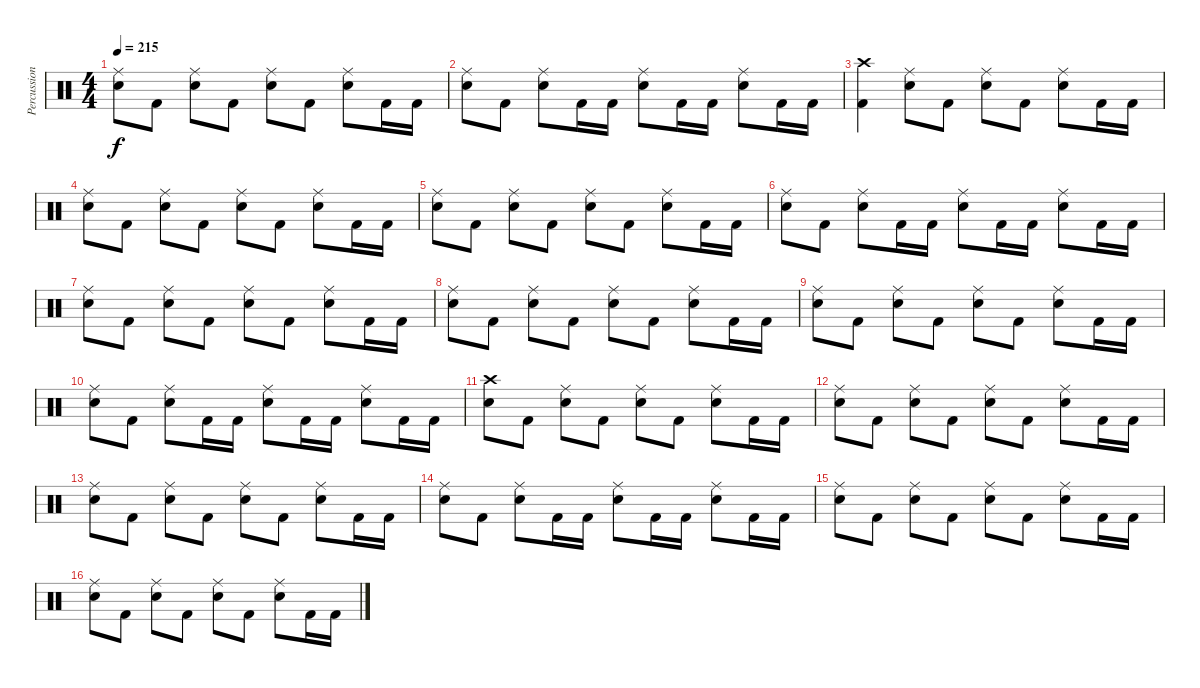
\track ("Percussion" "Percussion") {instrument percussion}
\staff {score}
\articulation defaults
\ts (4 4)
\tempo 215
\clef neutral
\ks aminor
("Ride (middle)" "Snare (hit) 2").8{dy f} "Kick (hit) 2".8 ("Ride (middle)" "Snare (hit) 2").8 "Kick (hit) 2".8 ("Ride (middle)" "Snare (hit) 2").8 "Kick (hit) 2".8 ("Ride (middle)" "Snare (hit) 2").8 "Kick (hit) 2".16 "Kick (hit) 2".16 |
("Ride (middle)" "Snare (hit) 2").8 "Kick (hit) 2".8 ("Ride (middle)" "Snare (hit) 2").8 "Kick (hit) 2".16 "Kick (hit) 2".16 ("Ride (middle)" "Snare (hit) 2").8 "Kick (hit) 2".16 "Kick (hit) 2".16 ("Ride (middle)" "Snare (hit) 2").8 "Kick (hit) 2".16 "Kick (hit) 2".16 |
("Crash high (hit)" "Kick (hit) 2").4 ("Ride (middle)" "Snare (hit) 2").8 "Kick (hit) 2".8 ("Ride (middle)" "Snare (hit) 2").8 "Kick (hit) 2".8 ("Ride (middle)" "Snare (hit) 2").8 "Kick (hit) 2".16 "Kick (hit) 2".16 |
("Ride (middle)" "Snare (hit) 2").8 "Kick (hit) 2".8 ("Ride (middle)" "Snare (hit) 2").8 "Kick (hit) 2".8 ("Ride (middle)" "Snare (hit) 2").8 "Kick (hit) 2".8 ("Ride (middle)" "Snare (hit) 2").8 "Kick (hit) 2".16 "Kick (hit) 2".16 |
("Ride (middle)" "Snare (hit) 2").8 "Kick (hit) 2".8 ("Ride (middle)" "Snare (hit) 2").8 "Kick (hit) 2".8 ("Ride (middle)" "Snare (hit) 2").8 "Kick (hit) 2".8 ("Ride (middle)" "Snare (hit) 2").8 "Kick (hit) 2".16 "Kick (hit) 2".16 |
("Ride (middle)" "Snare (hit) 2").8 "Kick (hit) 2".8 ("Ride (middle)" "Snare (hit) 2").8 "Kick (hit) 2".16 "Kick (hit) 2".16 ("Ride (middle)" "Snare (hit) 2").8 "Kick (hit) 2".16 "Kick (hit) 2".16 ("Ride (middle)" "Snare (hit) 2").8 "Kick (hit) 2".16 "Kick (hit) 2".16 |
("Ride (middle)" "Snare (hit) 2").8 "Kick (hit) 2".8 ("Ride (middle)" "Snare (hit) 2").8 "Kick (hit) 2".8 ("Ride (middle)" "Snare (hit) 2").8 "Kick (hit) 2".8 ("Ride (middle)" "Snare (hit) 2").8 "Kick (hit) 2".16 "Kick (hit) 2".16 |
("Ride (middle)" "Snare (hit) 2").8 "Kick (hit) 2".8 ("Ride (middle)" "Snare (hit) 2").8 "Kick (hit) 2".8 ("Ride (middle)" "Snare (hit) 2").8 "Kick (hit) 2".8 ("Ride (middle)" "Snare (hit) 2").8 "Kick (hit) 2".16 "Kick (hit) 2".16 |
("Ride (middle)" "Snare (hit) 2").8 "Kick (hit) 2".8 ("Ride (middle)" "Snare (hit) 2").8 "Kick (hit) 2".8 ("Ride (middle)" "Snare (hit) 2").8 "Kick (hit) 2".8 ("Ride (middle)" "Snare (hit) 2").8 "Kick (hit) 2".16 "Kick (hit) 2".16 |
("Ride (middle)" "Snare (hit) 2").8 "Kick (hit) 2".8 ("Ride (middle)" "Snare (hit) 2").8 "Kick (hit) 2".16 "Kick (hit) 2".16 ("Ride (middle)" "Snare (hit) 2").8 "Kick (hit) 2".16 "Kick (hit) 2".16 ("Ride (middle)" "Snare (hit) 2").8 "Kick (hit) 2".16 "Kick (hit) 2".16 |
("Crash high (hit)" "Snare (hit) 2").8 "Kick (hit) 2".8 ("Ride (middle)" "Snare (hit) 2").8 "Kick (hit) 2".8 ("Ride (middle)" "Snare (hit) 2").8 "Kick (hit) 2".8 ("Ride (middle)" "Snare (hit) 2").8 "Kick (hit) 2".16 "Kick (hit) 2".16 |
("Ride (middle)" "Snare (hit) 2").8 "Kick (hit) 2".8 ("Ride (middle)" "Snare (hit) 2").8 "Kick (hit) 2".8 ("Ride (middle)" "Snare (hit) 2").8 "Kick (hit) 2".8 ("Ride (middle)" "Snare (hit) 2").8 "Kick (hit) 2".16 "Kick (hit) 2".16 |
("Ride (middle)" "Snare (hit) 2").8 "Kick (hit) 2".8 ("Ride (middle)" "Snare (hit) 2").8 "Kick (hit) 2".8 ("Ride (middle)" "Snare (hit) 2").8 "Kick (hit) 2".8 ("Ride (middle)" "Snare (hit) 2").8 "Kick (hit) 2".16 "Kick (hit) 2".16 |
("Ride (middle)" "Snare (hit) 2").8 "Kick (hit) 2".8 ("Ride (middle)" "Snare (hit) 2").8 "Kick (hit) 2".16 "Kick (hit) 2".16 ("Ride (middle)" "Snare (hit) 2").8 "Kick (hit) 2".16 "Kick (hit) 2".16 ("Ride (middle)" "Snare (hit) 2").8 "Kick (hit) 2".16 "Kick (hit) 2".16 |
("Ride (middle)" "Snare (hit) 2").8 "Kick (hit) 2".8 ("Ride (middle)" "Snare (hit) 2").8 "Kick (hit) 2".8 ("Ride (middle)" "Snare (hit) 2").8 "Kick (hit) 2".8 ("Ride (middle)" "Snare (hit) 2").8 "Kick (hit) 2".16 "Kick (hit) 2".16 |
("Ride (middle)" "Snare (hit) 2").8 "Kick (hit) 2".8 ("Ride (middle)" "Snare (hit) 2").8 "Kick (hit) 2".8 ("Ride (middle)" "Snare (hit) 2").8 "Kick (hit) 2".8 ("Ride (middle)" "Snare (hit) 2").8 "Kick (hit) 2".16 "Kick (hit) 2".16
